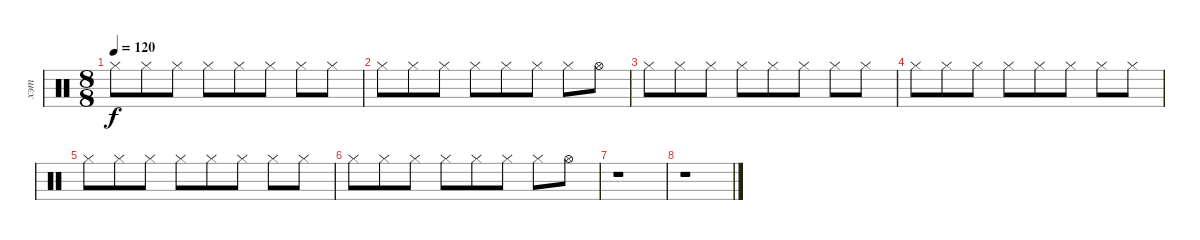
\track ("хэт" "хэт") {instrument percussion}
\staff {score}
\articulation defaults
\ts (8 8)
\tempo 120
\clef neutral
\ks c "Hi-Hat (closed)".8{dy f} "Hi-Hat (closed)".8 "Hi-Hat (closed)".8 "Hi-Hat (closed)".8 "Hi-Hat (closed)".8 "Hi-Hat (closed)".8 "Hi-Hat (closed)".8 "Hi-Hat (closed)".8
|
"Hi-Hat (closed)".8 "Hi-Hat (closed)".8 "Hi-Hat (closed)".8 "Hi-Hat (closed)".8 "Hi-Hat (closed)".8 "Hi-Hat (closed)".8 "Hi-Hat (closed)".8 "Hi-Hat (open)".8 |
"Hi-Hat (closed)".8 "Hi-Hat (closed)".8 "Hi-Hat (closed)".8 "Hi-Hat (closed)".8 "Hi-Hat (closed)".8 "Hi-Hat (closed)".8 "Hi-Hat (closed)".8 "Hi-Hat (closed)".8 |
"Hi-Hat (closed)".8 "Hi-Hat (closed)".8 "Hi-Hat (closed)".8 "Hi-Hat (closed)".8 "Hi-Hat (closed)".8 "Hi-Hat (closed)".8 "Hi-Hat (closed)".8 "Hi-Hat (closed)".8 |
"Hi-Hat (closed)".8 "Hi-Hat (closed)".8 "Hi-Hat (closed)".8 "Hi-Hat (closed)".8 "Hi-Hat (closed)".8 "Hi-Hat (closed)".8 "Hi-Hat (closed)".8 "Hi-Hat (closed)".8 |
"Hi-Hat (closed)".8 "Hi-Hat (closed)".8 "Hi-Hat (closed)".8 "Hi-Hat (closed)".8 "Hi-Hat (closed)".8 "Hi-Hat (closed)".8 "Hi-Hat (closed)".8 "Hi-Hat (open)".8 |
r.1 |
r.1
